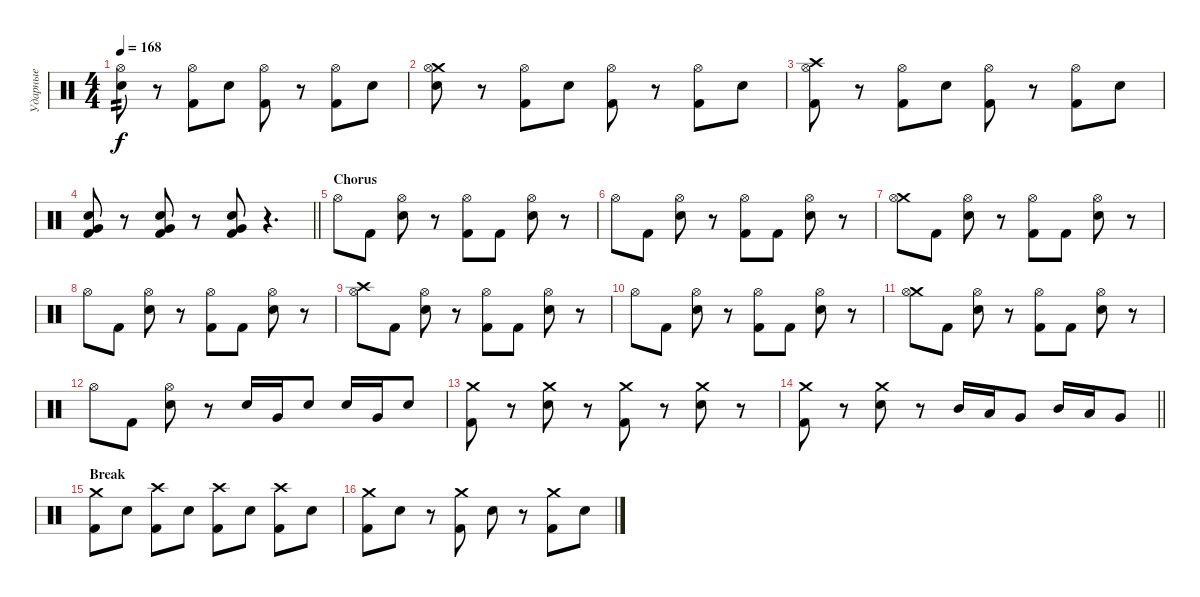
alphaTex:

\track ("Ударные" "Ударные") {instrument percussion}
\staff {score}
\articulation defaults
\ts (4 4)
\tempo 168
\clef neutral
\ks c
("Hi-Hat (open)" "Snare (hit) 2").8{tp 2 dy f} r.8 ("Hi-Hat (open)" "Kick (hit) 2").8 "Snare (hit) 2".8 ("Hi-Hat (open)" "Kick (hit) 2").8 r.8 ("Hi-Hat (open)" "Kick (hit) 2").8 "Snare (hit) 2".8 |
("Crash medium (hit)" "Hi-Hat (open)" "Snare (hit) 2").8 r.8 ("Hi-Hat (open)" "Kick (hit) 2").8 "Snare (hit) 2".8 ("Hi-Hat (open)" "Kick (hit) 2").8 r.8 ("Hi-Hat (open)" "Kick (hit) 2").8 "Snare (hit) 2".8 |
("Crash high (hit)" "Hi-Hat (open)" "Kick (hit) 2").8 r.8 ("Hi-Hat (open)" "Kick (hit) 2").8 "Snare (hit) 2".8 ("Hi-Hat (open)" "Kick (hit) 2").8 r.8 ("Hi-Hat (open)" "Kick (hit) 2").8 "Snare (hit) 2".8 |
\barLineRight lightlight
("Very Low Tom (hit)" "Snare (hit) 2" "Kick (hit) 2").8 r.8 ("Very Low Tom (hit)" "Snare (hit) 2" "Kick (hit) 2").8 r.8 ("Very Low Tom (hit)" "Snare (hit) 2" "Kick (hit) 2").8 r.4{d} |
\section ("" "Chorus")
"Hi-Hat (open)".8 "Kick (hit) 2".8 ("Hi-Hat (open)" "Snare (hit) 2").8 r.8 ("Hi-Hat (open)" "Kick (hit) 2").8 "Kick (hit) 2".8 ("Hi-Hat (open)" "Snare (hit) 2").8 r.8 |
"Hi-Hat (open)".8 "Kick (hit) 2".8 ("Hi-Hat (open)" "Snare (hit) 2").8 r.8 ("Hi-Hat (open)" "Kick (hit) 2").8 "Kick (hit) 2".8 ("Hi-Hat (open)" "Snare (hit) 2").8 r.8 |
("Crash medium (hit)" "Hi-Hat (open)").8 "Kick (hit) 2".8 ("Hi-Hat (open)" "Snare (hit) 2").8 r.8 ("Hi-Hat (open)" "Kick (hit) 2").8 "Kick (hit) 2".8 ("Hi-Hat (open)" "Snare (hit) 2").8 r.8 |
"Hi-Hat (open)".8 "Kick (hit) 2".8 ("Hi-Hat (open)" "Snare (hit) 2").8 r.8 ("Hi-Hat (open)" "Kick (hit) 2").8 "Kick (hit) 2".8 ("Hi-Hat (open)" "Snare (hit) 2").8 r.8 |
("Crash high (hit)" "Hi-Hat (open)").8 "Kick (hit) 2".8 ("Hi-Hat (open)" "Snare (hit) 2").8 r.8 ("Hi-Hat (open)" "Kick (hit) 2").8 "Kick (hit) 2".8 ("Hi-Hat (open)" "Snare (hit) 2").8 r.8 |
"Hi-Hat (open)".8 "Kick (hit) 2".8 ("Hi-Hat (open)" "Snare (hit) 2").8 r.8 ("Hi-Hat (open)" "Kick (hit) 2").8 "Kick (hit) 2".8 ("Hi-Hat (open)" "Snare (hit) 2").8 r.8 |
("Crash medium (hit)" "Hi-Hat (open)").8 "Kick (hit) 2".8 ("Hi-Hat (open)" "Snare (hit) 2").8 r.8 ("Hi-Hat (open)" "Kick (hit) 2").8 "Kick (hit) 2".8 ("Hi-Hat (open)" "Snare (hit) 2").8 r.8 |
"Hi-Hat (open)".8 "Kick (hit) 2".8 ("Hi-Hat (open)" "Snare (hit) 2").8 r.8 "Snare (hit) 2".16 "Very Low Tom (hit)".16 "Snare (hit) 2".8 "Snare (hit) 2".16 "Very Low Tom (hit)".16 "Snare (hit) 2".8 |
("Crash medium (hit)" "Kick (hit) 2").8 r.8 ("Crash medium (hit)" "Snare (hit) 2").8 r.8 ("Crash medium (hit)" "Kick (hit) 2").8 r.8 ("Crash medium (hit)" "Snare (hit) 2").8 r.8 |
\barLineRight lightlight
("Crash medium (hit)" "Kick (hit) 2").8 r.8 ("Crash medium (hit)" "Snare (hit) 2").8 r.8 "Mid Tom (hit)".16 "Low Tom (hit)".16 "Very Low Tom (hit)".8 "Mid Tom (hit)".16 "Low Tom (hit)".16 "Very Low Tom (hit)".8 |
\section ("" "Break")
("Crash medium (hit)" "Kick (hit) 2").8 "Snare (hit) 2".8 ("Crash high (hit)" "Kick (hit) 2").8 "Snare (hit) 2".8 ("Crash high (hit)" "Kick (hit) 2").8 "Snare (hit) 2".8 ("Crash high (hit)" "Kick (hit) 2").8 "Snare (hit) 2".8 |
("Crash medium (hit)" "Kick (hit) 2").8 "Snare (hit) 2".8 r.8 ("Crash medium (hit)" "Kick (hit) 2").8 "Snare (hit) 2".8 r.8 ("Crash medium (hit)" "Kick (hit) 2").8 "Snare (hit) 2".8
